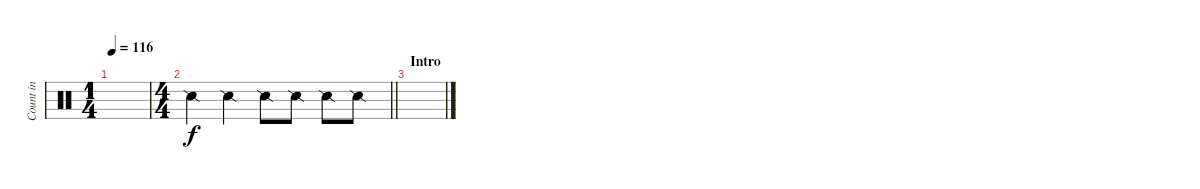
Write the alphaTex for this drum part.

\track ("Count in" "Count in") {instrument percussion}
\staff {score}
\articulation defaults
\ts (1 4)
\tempo 116
\clef neutral
\ks c
|
\ts (4 4)
\barLineRight lightlight "Snare (side stick) 2".4 "Snare (side stick) 2".4 "Snare (side stick) 2".8 "Snare (side stick) 2".8 "Snare (side stick) 2".8 "Snare (side stick) 2".8
|
\section ("" "Intro")
